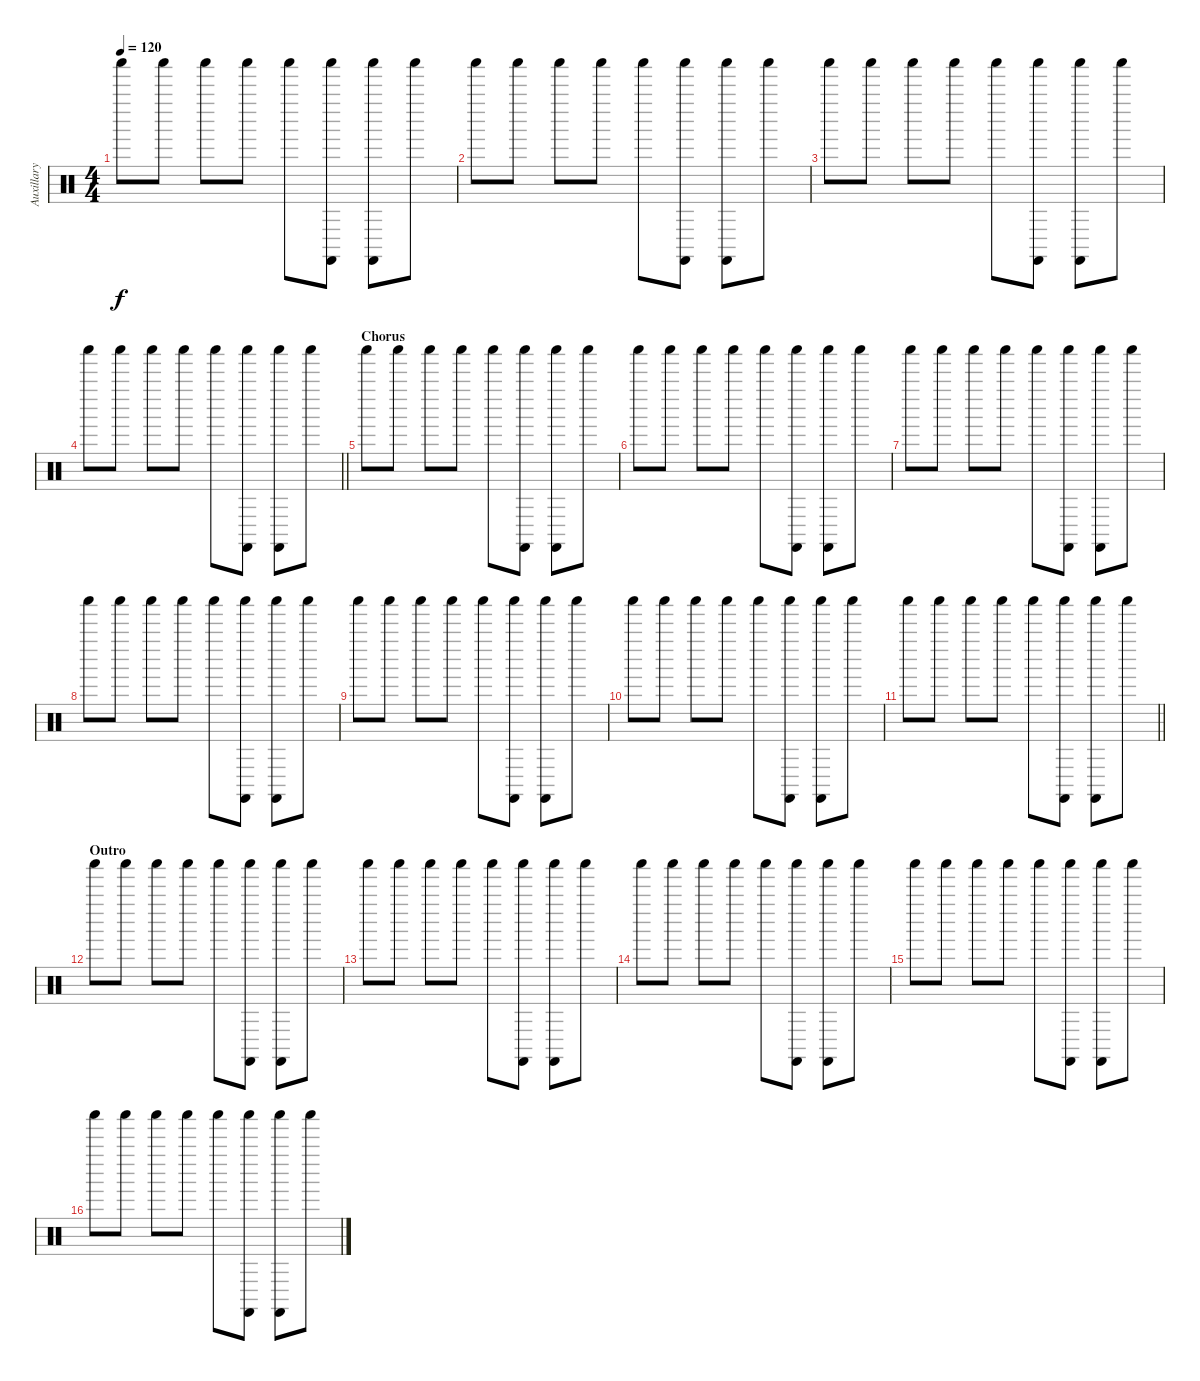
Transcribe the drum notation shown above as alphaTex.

\track ("Auxillary" "Auxillary") {instrument percussion}
\staff {score}
\articulation defaults
\ts (4 4)
\tempo 120
\clef neutral
\ks c "Shaker (hit)".8{dy f} "Shaker (hit)".8 "Shaker (hit)".8 "Shaker (hit)".8 "Shaker (hit)".8
("Shaker (hit)" "Castanets (hit)").8 ("Shaker (hit)" "Castanets (hit)").8 "Shaker (hit)".8 |
"Shaker (hit)".8 "Shaker (hit)".8 "Shaker (hit)".8 "Shaker (hit)".8 "Shaker (hit)".8 ("Shaker (hit)" "Castanets (hit)").8 ("Shaker (hit)" "Castanets (hit)").8 "Shaker (hit)".8 |
"Shaker (hit)".8 "Shaker (hit)".8 "Shaker (hit)".8 "Shaker (hit)".8 "Shaker (hit)".8 ("Shaker (hit)" "Castanets (hit)").8 ("Shaker (hit)" "Castanets (hit)").8 "Shaker (hit)".8 |
\barLineRight lightlight "Shaker (hit)".8 "Shaker (hit)".8 "Shaker (hit)".8 "Shaker (hit)".8 "Shaker (hit)".8
("Shaker (hit)" "Castanets (hit)").8 ("Shaker (hit)" "Castanets (hit)").8 "Shaker (hit)".8 |
\section ("" "Chorus")
"Shaker (hit)".8 "Shaker (hit)".8 "Shaker (hit)".8 "Shaker (hit)".8 "Shaker (hit)".8 ("Shaker (hit)" "Castanets (hit)").8 ("Shaker (hit)" "Castanets (hit)").8 "Shaker (hit)".8 |
"Shaker (hit)".8 "Shaker (hit)".8 "Shaker (hit)".8 "Shaker (hit)".8 "Shaker (hit)".8 ("Shaker (hit)" "Castanets (hit)").8 ("Shaker (hit)" "Castanets (hit)").8 "Shaker (hit)".8 |
"Shaker (hit)".8 "Shaker (hit)".8 "Shaker (hit)".8 "Shaker (hit)".8 "Shaker (hit)".8 ("Shaker (hit)" "Castanets (hit)").8 ("Shaker (hit)" "Castanets (hit)").8 "Shaker (hit)".8 |
"Shaker (hit)".8 "Shaker (hit)".8 "Shaker (hit)".8 "Shaker (hit)".8 "Shaker (hit)".8 ("Shaker (hit)" "Castanets (hit)").8 ("Shaker (hit)" "Castanets (hit)").8 "Shaker (hit)".8 |
"Shaker (hit)".8 "Shaker (hit)".8 "Shaker (hit)".8 "Shaker (hit)".8 "Shaker (hit)".8 ("Shaker (hit)" "Castanets (hit)").8 ("Shaker (hit)" "Castanets (hit)").8 "Shaker (hit)".8 |
"Shaker (hit)".8 "Shaker (hit)".8 "Shaker (hit)".8 "Shaker (hit)".8 "Shaker (hit)".8 ("Shaker (hit)" "Castanets (hit)").8 ("Shaker (hit)" "Castanets (hit)").8 "Shaker (hit)".8 |
\barLineRight lightlight "Shaker (hit)".8 "Shaker (hit)".8 "Shaker (hit)".8 "Shaker (hit)".8 "Shaker (hit)".8
("Shaker (hit)" "Castanets (hit)").8 ("Shaker (hit)" "Castanets (hit)").8 "Shaker (hit)".8 |
\section ("" "Outro")
"Shaker (hit)".8 "Shaker (hit)".8 "Shaker (hit)".8 "Shaker (hit)".8 "Shaker (hit)".8 ("Shaker (hit)" "Castanets (hit)").8 ("Shaker (hit)" "Castanets (hit)").8 "Shaker (hit)".8 |
"Shaker (hit)".8 "Shaker (hit)".8 "Shaker (hit)".8 "Shaker (hit)".8 "Shaker (hit)".8 ("Shaker (hit)" "Castanets (hit)").8 ("Shaker (hit)" "Castanets (hit)").8 "Shaker (hit)".8 |
"Shaker (hit)".8 "Shaker (hit)".8 "Shaker (hit)".8 "Shaker (hit)".8 "Shaker (hit)".8 ("Shaker (hit)" "Castanets (hit)").8 ("Shaker (hit)" "Castanets (hit)").8 "Shaker (hit)".8 |
"Shaker (hit)".8 "Shaker (hit)".8 "Shaker (hit)".8 "Shaker (hit)".8 "Shaker (hit)".8 ("Shaker (hit)" "Castanets (hit)").8 ("Shaker (hit)" "Castanets (hit)").8 "Shaker (hit)".8 |
"Shaker (hit)".8 "Shaker (hit)".8 "Shaker (hit)".8 "Shaker (hit)".8 "Shaker (hit)".8 ("Shaker (hit)" "Castanets (hit)").8 ("Shaker (hit)" "Castanets (hit)").8 "Shaker (hit)".8
